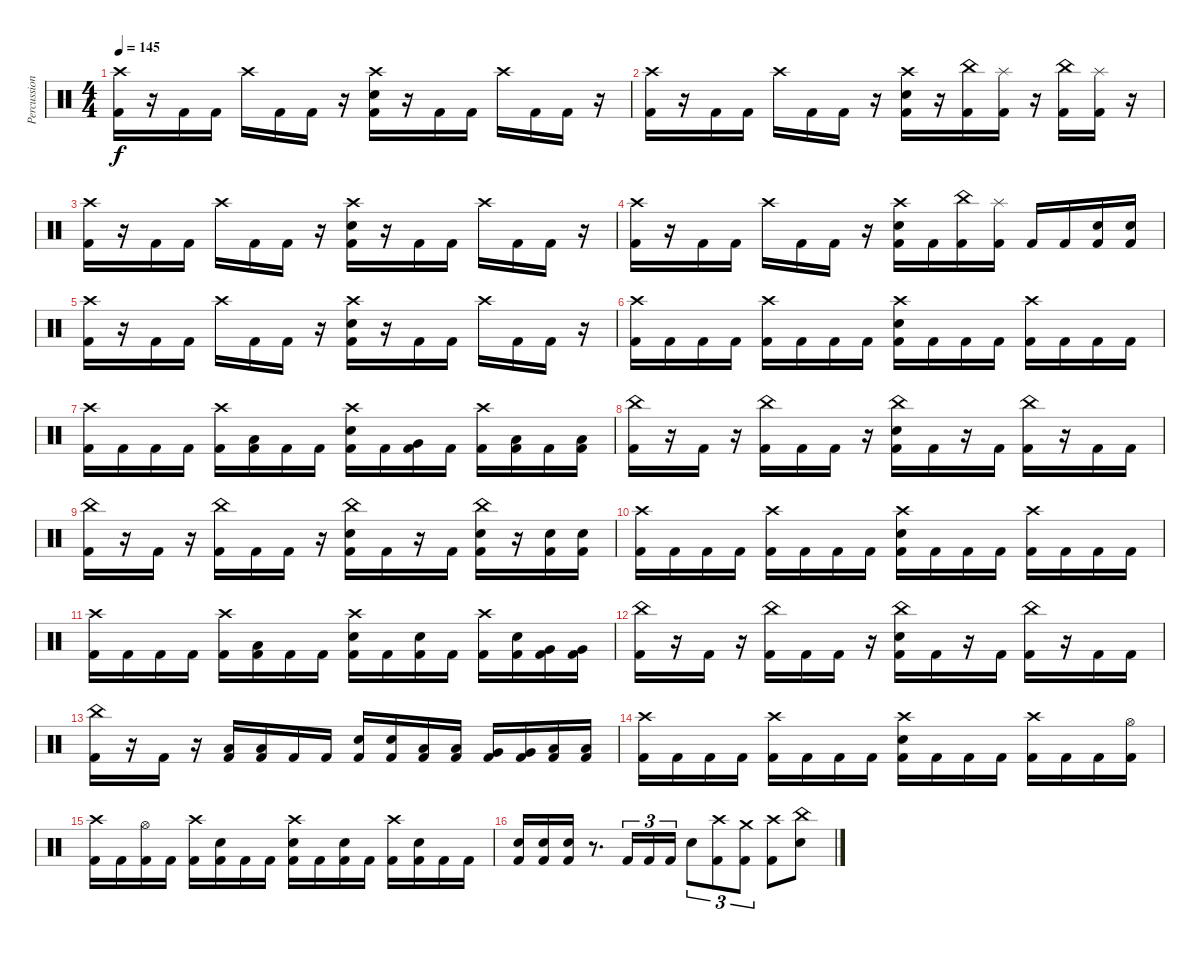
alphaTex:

\track ("Percussion" "Percussion") {instrument percussion}
\staff {score}
\articulation defaults
\ts (4 4)
\tempo 145
\clef neutral
\ks c
("Crash high (hit)" "Kick (hit) 2").16{dy f} r.16 "Kick (hit) 2".16 "Kick (hit) 2".16 "Crash high (hit)".16 "Kick (hit) 2".16 "Kick (hit) 2".16 r.16 ("Crash high (hit)" "Electric Snare (hit)" "Kick (hit) 2").16 r.16 "Kick (hit) 2".16 "Kick (hit) 2".16 "Crash high (hit)".16 "Kick (hit) 2".16 "Kick (hit) 2".16 r.16 |
("Crash high (hit)" "Kick (hit) 2").16 r.16 "Kick (hit) 2".16 "Kick (hit) 2".16 "Crash high (hit)".16 "Kick (hit) 2".16 "Kick (hit) 2".16 r.16 ("Crash high (hit)" "Electric Snare (hit)" "Kick (hit) 2").16 r.16 ("China (hit)" "Kick (hit) 2").16 ("Splash (hit)" "Kick (hit) 2").16 r.16 ("China (hit)" "Kick (hit) 2").16 ("Splash (hit)" "Kick (hit) 2").16 r.16 |
("Crash high (hit)" "Kick (hit) 2").16 r.16 "Kick (hit) 2".16 "Kick (hit) 2".16 "Crash high (hit)".16 "Kick (hit) 2".16 "Kick (hit) 2".16 r.16 ("Crash high (hit)" "Electric Snare (hit)" "Kick (hit) 2").16 r.16 "Kick (hit) 2".16 "Kick (hit) 2".16 "Crash high (hit)".16 "Kick (hit) 2".16 "Kick (hit) 2".16 r.16 |
("Crash high (hit)" "Kick (hit) 2").16 r.16 "Kick (hit) 2".16 "Kick (hit) 2".16 "Crash high (hit)".16 "Kick (hit) 2".16 "Kick (hit) 2".16 r.16 ("Crash high (hit)" "Electric Snare (hit)" "Kick (hit) 2").16 "Kick (hit) 2".16 ("China (hit)" "Kick (hit) 2").16 ("Splash (hit)" "Kick (hit) 2").16 "Kick (hit) 2".16 "Kick (hit) 2".16 ("Electric Snare (hit)" "Kick (hit) 2").16 ("Electric Snare (hit)" "Kick (hit) 2").16 |
("Crash high (hit)" "Kick (hit) 2").16 r.16 "Kick (hit) 2".16 "Kick (hit) 2".16 "Crash high (hit)".16 "Kick (hit) 2".16 "Kick (hit) 2".16 r.16 ("Crash high (hit)" "Electric Snare (hit)" "Kick (hit) 2").16 r.16 "Kick (hit) 2".16 "Kick (hit) 2".16 "Crash high (hit)".16 "Kick (hit) 2".16 "Kick (hit) 2".16 r.16 |
("Crash high (hit)" "Kick (hit) 2").16 "Kick (hit) 2".16 "Kick (hit) 2".16 "Kick (hit) 2".16 ("Crash high (hit)" "Kick (hit) 2").16 "Kick (hit) 2".16 "Kick (hit) 2".16 "Kick (hit) 2".16 ("Crash high (hit)" "Electric Snare (hit)" "Kick (hit) 2").16 "Kick (hit) 2".16 "Kick (hit) 2".16 "Kick (hit) 2".16 ("Crash high (hit)" "Kick (hit) 2").16 "Kick (hit) 2".16 "Kick (hit) 2".16 "Kick (hit) 2".16 |
("Crash high (hit)" "Kick (hit) 2").16 "Kick (hit) 2".16 "Kick (hit) 2".16 "Kick (hit) 2".16 ("Crash high (hit)" "Kick (hit) 2").16 ("Low Tom (hit)" "Kick (hit) 2").16 "Kick (hit) 2".16 "Kick (hit) 2".16 ("Crash high (hit)" "Electric Snare (hit)" "Kick (hit) 2").16 "Kick (hit) 2".16 ("Very Low Tom (hit)" "Kick (hit) 2").16 "Kick (hit) 2".16 ("Crash high (hit)" "Kick (hit) 2").16 ("Low Floor Tom (hit)" "Kick (hit) 2").16 "Kick (hit) 2".16 ("Low Floor Tom (hit)" "Kick (hit) 2").16 |
("China (hit)" "Kick (hit) 2").16 r.16 "Kick (hit) 2".16 r.16 ("China (hit)" "Kick (hit) 2").16 "Kick (hit) 2".16 "Kick (hit) 2".16 r.16 ("China (hit)" "Electric Snare (hit)" "Kick (hit) 2").16 "Kick (hit) 2".16 r.16 "Kick (hit) 2".16 ("China (hit)" "Kick (hit) 2").16 r.16 "Kick (hit) 2".16 "Kick (hit) 2".16 |
("China (hit)" "Kick (hit) 2").16 r.16 "Kick (hit) 2".16 r.16 ("China (hit)" "Kick (hit) 2").16 "Kick (hit) 2".16 "Kick (hit) 2".16 r.16 ("China (hit)" "Electric Snare (hit)" "Kick (hit) 2").16 "Kick (hit) 2".16 r.16 "Kick (hit) 2".16 ("China (hit)" "Electric Snare (hit)" "Kick (hit) 2").16 r.16 ("Electric Snare (hit)" "Kick (hit) 2").16 ("Electric Snare (hit)" "Kick (hit) 2").16 |
("Crash high (hit)" "Kick (hit) 2").16 "Kick (hit) 2".16 "Kick (hit) 2".16 "Kick (hit) 2".16 ("Crash high (hit)" "Kick (hit) 2").16 "Kick (hit) 2".16 "Kick (hit) 2".16 "Kick (hit) 2".16 ("Crash high (hit)" "Electric Snare (hit)" "Kick (hit) 2").16 "Kick (hit) 2".16 "Kick (hit) 2".16 "Kick (hit) 2".16 ("Crash high (hit)" "Kick (hit) 2").16 "Kick (hit) 2".16 "Kick (hit) 2".16 "Kick (hit) 2".16 |
("Crash high (hit)" "Kick (hit) 2").16 "Kick (hit) 2".16 "Kick (hit) 2".16 "Kick (hit) 2".16 ("Crash high (hit)" "Kick (hit) 2").16 ("Low Tom (hit)" "Kick (hit) 2").16 "Kick (hit) 2".16 "Kick (hit) 2".16 ("Crash high (hit)" "Electric Snare (hit)" "Kick (hit) 2").16 "Kick (hit) 2".16 ("Electric Snare (hit)" "Kick (hit) 2").16 "Kick (hit) 2".16 ("Crash high (hit)" "Kick (hit) 2").16 ("Electric Snare (hit)" "Kick (hit) 2").16 ("Very Low Tom (hit)" "Kick (hit) 2").16 ("Very Low Tom (hit)" "Kick (hit) 2").16 |
("China (hit)" "Kick (hit) 2").16 r.16 "Kick (hit) 2".16 r.16 ("China (hit)" "Kick (hit) 2").16 "Kick (hit) 2".16 "Kick (hit) 2".16 r.16 ("China (hit)" "Electric Snare (hit)" "Kick (hit) 2").16 "Kick (hit) 2".16 r.16 "Kick (hit) 2".16 ("China (hit)" "Kick (hit) 2").16 r.16 "Kick (hit) 2".16 "Kick (hit) 2".16 |
("China (hit)" "Kick (hit) 2").16 r.16 "Kick (hit) 2".16 r.16 ("Low Tom (hit)" "Kick (hit) 2").16 ("Low Tom (hit)" "Kick (hit) 2").16 "Kick (hit) 2".16 "Kick (hit) 2".16 ("Electric Snare (hit)" "Kick (hit) 2").16 ("Electric Snare (hit)" "Kick (hit) 2").16 ("Low Tom (hit)" "Kick (hit) 2").16 ("Low Tom (hit)" "Kick (hit) 2").16 ("Very Low Tom (hit)" "Kick (hit) 2").16 ("Very Low Tom (hit)" "Kick (hit) 2").16 ("Low Floor Tom (hit)" "Kick (hit) 2").16 ("Low Floor Tom (hit)" "Kick (hit) 2").16 |
("Crash high (hit)" "Kick (hit) 2").16 "Kick (hit) 2".16 "Kick (hit) 2".16 "Kick (hit) 2".16 ("Crash high (hit)" "Kick (hit) 2").16 "Kick (hit) 2".16 "Kick (hit) 2".16 "Kick (hit) 2".16 ("Crash high (hit)" "Electric Snare (hit)" "Kick (hit) 2").16 "Kick (hit) 2".16 "Kick (hit) 2".16 "Kick (hit) 2".16 ("Crash high (hit)" "Kick (hit) 2").16 "Kick (hit) 2".16 "Kick (hit) 2".16 ("Hi-Hat (open)" "Kick (hit) 2").16 |
("Crash high (hit)" "Kick (hit) 2").16 "Kick (hit) 2".16 ("Hi-Hat (open)" "Kick (hit) 2").16 "Kick (hit) 2".16 ("Crash high (hit)" "Kick (hit) 2").16 ("Electric Snare (hit)" "Kick (hit) 2").16 "Kick (hit) 2".16 "Kick (hit) 2".16 ("Crash high (hit)" "Electric Snare (hit)" "Kick (hit) 2").16 "Kick (hit) 2".16 ("Electric Snare (hit)" "Kick (hit) 2").16 "Kick (hit) 2".16 ("Crash high (hit)" "Kick (hit) 2").16 ("Electric Snare (hit)" "Kick (hit) 2").16 "Kick (hit) 2".16 "Kick (hit) 2".16 |
("Electric Snare (hit)" "Kick (hit) 2").16 ("Electric Snare (hit)" "Kick (hit) 2").16 ("Electric Snare (hit)" "Kick (hit) 2").16 r.8{d} "Kick (hit) 2".16{tu (3 2)} "Kick (hit) 2".16{tu (3 2)} "Kick (hit) 2".16{tu (3 2)} "Electric Snare (hit)".8{tu (3 2)} ("Crash high (hit)" "Kick (hit) 2").8{tu (3 2)} ("Crash medium (hit)" "Kick (hit) 2").8{tu (3 2)} ("Crash high (hit)" "Kick (hit) 2").8 ("China (hit)" "Electric Snare (hit)").8
